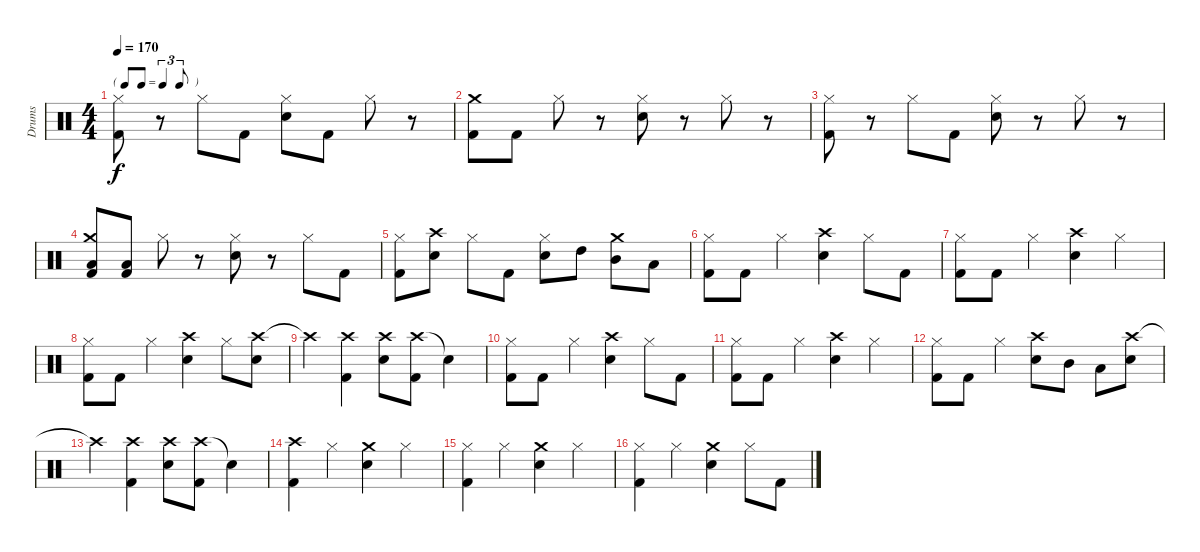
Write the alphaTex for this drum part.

\track ("Drums" "Drums") {instrument percussion}
\staff {score}
\articulation defaults
\ts (4 4)
\tf triplet8th
\tempo 170
\clef neutral
\ks c
("Hi-Hat (closed)" "Kick (hit) 2").8{dy f} r.8 "Hi-Hat (closed)".8 "Kick (hit) 2".8 ("Hi-Hat (closed)" "Snare (hit) 2").8 "Kick (hit) 2".8 "Hi-Hat (closed)".8 r.8 |
("Crash medium (hit)" "Kick (hit) 2").8 "Kick (hit) 2".8 "Hi-Hat (closed)".8 r.8 ("Hi-Hat (closed)" "Snare (hit) 2").8 r.8 "Hi-Hat (closed)".8 r.8 |
("Hi-Hat (closed)" "Kick (hit) 2").8 r.8 "Hi-Hat (closed)".8 "Kick (hit) 2".8 ("Hi-Hat (closed)" "Snare (hit) 2").8 r.8 "Hi-Hat (closed)".8 r.8 |
("Crash medium (hit)" "Low Tom (hit)" "Kick (hit) 2").8 ("Low Tom (hit)" "Kick (hit) 2").8 "Hi-Hat (closed)".8 r.8 ("Hi-Hat (closed)" "Snare (hit) 2").8 r.8 "Hi-Hat (closed)".8 "Kick (hit) 2".8 |
("Hi-Hat (closed)" "Kick (hit) 2").8 ("Crash high (hit)" "Snare (hit) 2").8 "Hi-Hat (closed)".8 "Kick (hit) 2".8 ("Hi-Hat (closed)" "Snare (hit) 2").8 "High Tom (hit)".8 ("Crash medium (hit)" "Mid Tom (hit)").8 "Low Tom (hit)".8 |
("Hi-Hat (closed)" "Kick (hit) 2").8 "Kick (hit) 2".8 "Hi-Hat (closed)".4 ("Crash high (hit)" "Snare (hit) 2").4 "Hi-Hat (closed)".8 "Kick (hit) 2".8 |
("Hi-Hat (closed)" "Kick (hit) 2").8 "Kick (hit) 2".8 "Hi-Hat (closed)".4 ("Crash high (hit)" "Snare (hit) 2").4 "Hi-Hat (closed)".4 |
("Hi-Hat (closed)" "Kick (hit) 2").8 "Kick (hit) 2".8 "Hi-Hat (closed)".4 ("Crash high (hit)" "Snare (hit) 2").4 "Hi-Hat (closed)".8 ("Crash high (hit)" "Snare (hit) 2").8 |
"Crash high (hit)"{t}.4 ("Crash high (hit)" "Kick (hit) 2").4 ("Crash high (hit)" "Snare (hit) 2").8 ("Crash high (hit)" "Kick (hit) 2").8 "Snare (hit)"{t}.4 |
("Hi-Hat (closed)" "Kick (hit) 2").8 "Kick (hit) 2".8 "Hi-Hat (closed)".4 ("Crash high (hit)" "Snare (hit) 2").4 "Hi-Hat (closed)".8 "Kick (hit) 2".8 |
("Hi-Hat (closed)" "Kick (hit) 2").8 "Kick (hit) 2".8 "Hi-Hat (closed)".4 ("Crash high (hit)" "Snare (hit) 2").4 "Hi-Hat (closed)".4 |
("Hi-Hat (closed)" "Kick (hit) 2").8 "Kick (hit) 2".8 "Hi-Hat (closed)".4 ("Crash high (hit)" "Snare (hit) 2").8 "Mid Tom (hit)".8 "Low Tom (hit)".8 ("Crash high (hit)" "Snare (hit) 2").8 |
"Crash high (hit)"{t}.4 ("Crash high (hit)" "Kick (hit) 2").4 ("Crash high (hit)" "Snare (hit) 2").8 ("Crash high (hit)" "Kick (hit) 2").8 "Snare (hit)"{t}.4 |
("Crash high (hit)" "Kick (hit) 2").4 "Hi-Hat (closed)".4 ("Crash medium (hit)" "Snare (hit) 2").4 "Hi-Hat (closed)".4 |
("Hi-Hat (closed)" "Kick (hit) 2").4 "Hi-Hat (closed)".4 ("Crash medium (hit)" "Snare (hit) 2").4 "Hi-Hat (closed)".4 |
("Hi-Hat (closed)" "Kick (hit) 2").4 "Hi-Hat (closed)".4 ("Crash medium (hit)" "Snare (hit) 2").4 "Hi-Hat (closed)".8 "Kick (hit) 2".8
